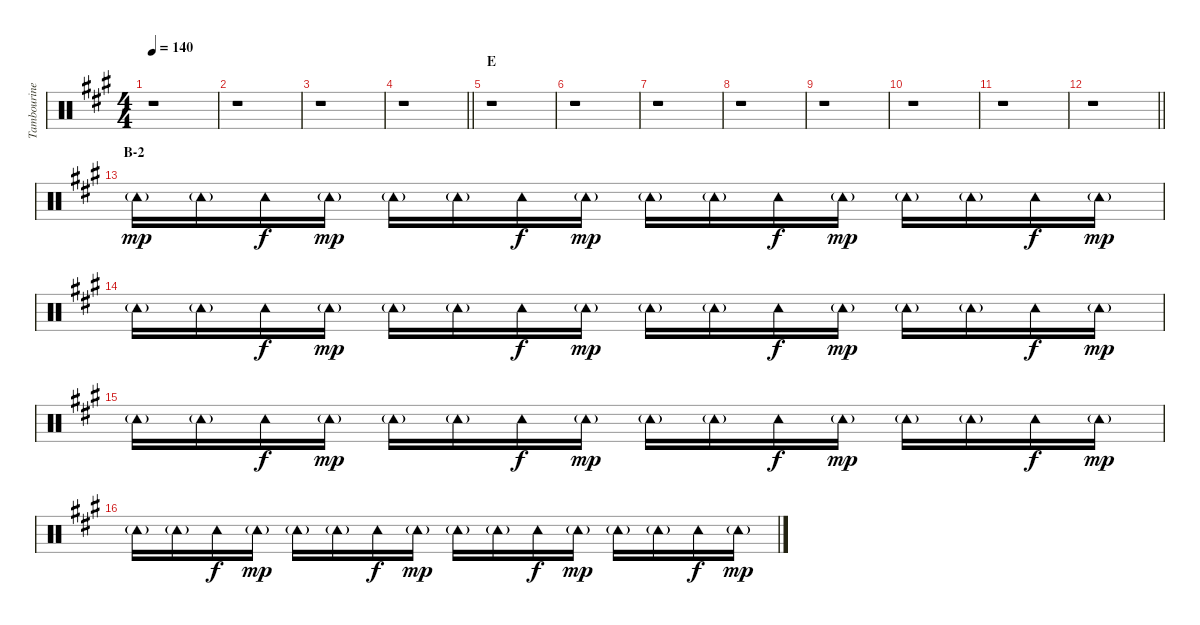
\track ("Tambourine" "Tambourine") {instrument percussion}
\staff {score}
\articulation defaults
\ts (4 4)
\tempo 140
\clef neutral
\ks a
r.1{dy mp} |
r.1 |
r.1 |
\barLineRight lightlight
r.1 |
\section ("" "E")
r.1 |
r.1 |
r.1 |
r.1 |
r.1 |
r.1 |
r.1 |
\barLineRight lightlight
r.1 |
\section ("" "B-2")
"Tambourine (hit)"{g}.16 "Tambourine (hit)"{g}.16 "Tambourine (hit)".16{dy f} "Tambourine (hit)"{g}.16{dy mp} "Tambourine (hit)"{g}.16 "Tambourine (hit)"{g}.16 "Tambourine (hit)".16{dy f} "Tambourine (hit)"{g}.16{dy mp} "Tambourine (hit)"{g}.16 "Tambourine (hit)"{g}.16 "Tambourine (hit)".16{dy f} "Tambourine (hit)"{g}.16{dy mp} "Tambourine (hit)"{g}.16 "Tambourine (hit)"{g}.16 "Tambourine (hit)".16{dy f} "Tambourine (hit)"{g}.16{dy mp} |
"Tambourine (hit)"{g}.16 "Tambourine (hit)"{g}.16 "Tambourine (hit)".16{dy f} "Tambourine (hit)"{g}.16{dy mp} "Tambourine (hit)"{g}.16 "Tambourine (hit)"{g}.16 "Tambourine (hit)".16{dy f} "Tambourine (hit)"{g}.16{dy mp} "Tambourine (hit)"{g}.16 "Tambourine (hit)"{g}.16 "Tambourine (hit)".16{dy f} "Tambourine (hit)"{g}.16{dy mp} "Tambourine (hit)"{g}.16 "Tambourine (hit)"{g}.16 "Tambourine (hit)".16{dy f} "Tambourine (hit)"{g}.16{dy mp} |
"Tambourine (hit)"{g}.16 "Tambourine (hit)"{g}.16 "Tambourine (hit)".16{dy f} "Tambourine (hit)"{g}.16{dy mp} "Tambourine (hit)"{g}.16 "Tambourine (hit)"{g}.16 "Tambourine (hit)".16{dy f} "Tambourine (hit)"{g}.16{dy mp} "Tambourine (hit)"{g}.16 "Tambourine (hit)"{g}.16 "Tambourine (hit)".16{dy f} "Tambourine (hit)"{g}.16{dy mp} "Tambourine (hit)"{g}.16 "Tambourine (hit)"{g}.16 "Tambourine (hit)".16{dy f} "Tambourine (hit)"{g}.16{dy mp} |
"Tambourine (hit)"{g}.16 "Tambourine (hit)"{g}.16 "Tambourine (hit)".16{dy f} "Tambourine (hit)"{g}.16{dy mp} "Tambourine (hit)"{g}.16 "Tambourine (hit)"{g}.16 "Tambourine (hit)".16{dy f} "Tambourine (hit)"{g}.16{dy mp} "Tambourine (hit)"{g}.16 "Tambourine (hit)"{g}.16 "Tambourine (hit)".16{dy f} "Tambourine (hit)"{g}.16{dy mp} "Tambourine (hit)"{g}.16 "Tambourine (hit)"{g}.16 "Tambourine (hit)".16{dy f} "Tambourine (hit)"{g}.16{dy mp}
